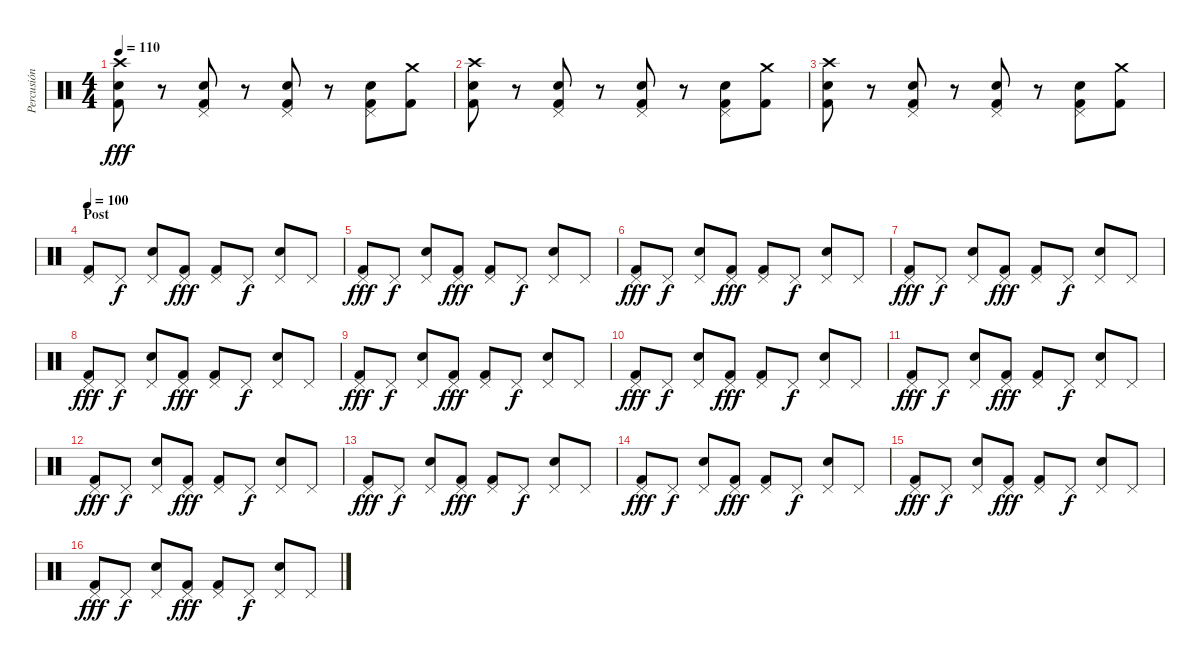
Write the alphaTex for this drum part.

\track ("Percusión" "Percusión") {instrument percussion}
\staff {score}
\articulation defaults
\ts (4 4)
\tempo 110
\clef neutral
\ks c
("Kick (hit) 2" "Snare (hit) 2" "Crash high (hit)").8{dy fff} r.8 ("Kick (hit) 2" "Snare (hit) 2" "Pedal Hi-Hat (hit)").8 r.8 ("Kick (hit) 2" "Snare (hit) 2" "Pedal Hi-Hat (hit)").8 r.8 ("Kick (hit) 2" "Snare (hit) 2" "Pedal Hi-Hat (hit)").8 ("Crash medium (hit)" "Kick (hit) 2").8 |
("Kick (hit) 2" "Snare (hit) 2" "Crash high (hit)").8 r.8 ("Kick (hit) 2" "Snare (hit) 2" "Pedal Hi-Hat (hit)").8 r.8 ("Kick (hit) 2" "Snare (hit) 2" "Pedal Hi-Hat (hit)").8 r.8 ("Kick (hit) 2" "Snare (hit) 2" "Pedal Hi-Hat (hit)").8 ("Crash medium (hit)" "Kick (hit) 2").8 |
("Kick (hit) 2" "Snare (hit) 2" "Crash high (hit)").8 r.8 ("Kick (hit) 2" "Snare (hit) 2" "Pedal Hi-Hat (hit)").8 r.8 ("Kick (hit) 2" "Snare (hit) 2" "Pedal Hi-Hat (hit)").8 r.8 ("Kick (hit) 2" "Snare (hit) 2" "Pedal Hi-Hat (hit)").8 ("Crash medium (hit)" "Kick (hit) 2").8 |
\section ("" "Post")
\tempo 100
("Pedal Hi-Hat (hit)" "Kick (hit) 2").8{volume 8} "Pedal Hi-Hat (hit)".8{dy f} ("Pedal Hi-Hat (hit)" "Snare (hit) 2").8 ("Pedal Hi-Hat (hit)" "Kick (hit) 2").8{dy fff} ("Pedal Hi-Hat (hit)" "Kick (hit) 2").8 "Pedal Hi-Hat (hit)".8{dy f} ("Pedal Hi-Hat (hit)" "Snare (hit) 2").8 "Pedal Hi-Hat (hit)".8 |
("Pedal Hi-Hat (hit)" "Kick (hit) 2").8{dy fff} "Pedal Hi-Hat (hit)".8{dy f} ("Pedal Hi-Hat (hit)" "Snare (hit) 2").8 ("Pedal Hi-Hat (hit)" "Kick (hit) 2").8{dy fff} ("Pedal Hi-Hat (hit)" "Kick (hit) 2").8 "Pedal Hi-Hat (hit)".8{dy f} ("Pedal Hi-Hat (hit)" "Snare (hit) 2").8 "Pedal Hi-Hat (hit)".8 |
("Pedal Hi-Hat (hit)" "Kick (hit) 2").8{dy fff} "Pedal Hi-Hat (hit)".8{dy f} ("Pedal Hi-Hat (hit)" "Snare (hit) 2").8 ("Pedal Hi-Hat (hit)" "Kick (hit) 2").8{dy fff} ("Pedal Hi-Hat (hit)" "Kick (hit) 2").8 "Pedal Hi-Hat (hit)".8{dy f} ("Pedal Hi-Hat (hit)" "Snare (hit) 2").8 "Pedal Hi-Hat (hit)".8 |
("Pedal Hi-Hat (hit)" "Kick (hit) 2").8{dy fff} "Pedal Hi-Hat (hit)".8{dy f} ("Pedal Hi-Hat (hit)" "Snare (hit) 2").8 ("Pedal Hi-Hat (hit)" "Kick (hit) 2").8{dy fff} ("Pedal Hi-Hat (hit)" "Kick (hit) 2").8 "Pedal Hi-Hat (hit)".8{dy f} ("Pedal Hi-Hat (hit)" "Snare (hit) 2").8 "Pedal Hi-Hat (hit)".8 |
("Pedal Hi-Hat (hit)" "Kick (hit) 2").8{dy fff} "Pedal Hi-Hat (hit)".8{dy f} ("Pedal Hi-Hat (hit)" "Snare (hit) 2").8 ("Pedal Hi-Hat (hit)" "Kick (hit) 2").8{dy fff} ("Pedal Hi-Hat (hit)" "Kick (hit) 2").8 "Pedal Hi-Hat (hit)".8{dy f} ("Pedal Hi-Hat (hit)" "Snare (hit) 2").8 "Pedal Hi-Hat (hit)".8 |
("Pedal Hi-Hat (hit)" "Kick (hit) 2").8{dy fff} "Pedal Hi-Hat (hit)".8{dy f} ("Pedal Hi-Hat (hit)" "Snare (hit) 2").8 ("Pedal Hi-Hat (hit)" "Kick (hit) 2").8{dy fff} ("Pedal Hi-Hat (hit)" "Kick (hit) 2").8 "Pedal Hi-Hat (hit)".8{dy f} ("Pedal Hi-Hat (hit)" "Snare (hit) 2").8 "Pedal Hi-Hat (hit)".8 |
("Pedal Hi-Hat (hit)" "Kick (hit) 2").8{dy fff} "Pedal Hi-Hat (hit)".8{dy f} ("Pedal Hi-Hat (hit)" "Snare (hit) 2").8 ("Pedal Hi-Hat (hit)" "Kick (hit) 2").8{dy fff} ("Pedal Hi-Hat (hit)" "Kick (hit) 2").8 "Pedal Hi-Hat (hit)".8{dy f} ("Pedal Hi-Hat (hit)" "Snare (hit) 2").8 "Pedal Hi-Hat (hit)".8 |
("Pedal Hi-Hat (hit)" "Kick (hit) 2").8{dy fff} "Pedal Hi-Hat (hit)".8{dy f} ("Pedal Hi-Hat (hit)" "Snare (hit) 2").8 ("Pedal Hi-Hat (hit)" "Kick (hit) 2").8{dy fff} ("Pedal Hi-Hat (hit)" "Kick (hit) 2").8 "Pedal Hi-Hat (hit)".8{dy f} ("Pedal Hi-Hat (hit)" "Snare (hit) 2").8 "Pedal Hi-Hat (hit)".8 |
("Pedal Hi-Hat (hit)" "Kick (hit) 2").8{dy fff} "Pedal Hi-Hat (hit)".8{dy f} ("Pedal Hi-Hat (hit)" "Snare (hit) 2").8 ("Pedal Hi-Hat (hit)" "Kick (hit) 2").8{dy fff} ("Pedal Hi-Hat (hit)" "Kick (hit) 2").8 "Pedal Hi-Hat (hit)".8{dy f} ("Pedal Hi-Hat (hit)" "Snare (hit) 2").8 "Pedal Hi-Hat (hit)".8 |
("Pedal Hi-Hat (hit)" "Kick (hit) 2").8{dy fff} "Pedal Hi-Hat (hit)".8{dy f} ("Pedal Hi-Hat (hit)" "Snare (hit) 2").8 ("Pedal Hi-Hat (hit)" "Kick (hit) 2").8{dy fff} ("Pedal Hi-Hat (hit)" "Kick (hit) 2").8 "Pedal Hi-Hat (hit)".8{dy f} ("Pedal Hi-Hat (hit)" "Snare (hit) 2").8 "Pedal Hi-Hat (hit)".8 |
("Pedal Hi-Hat (hit)" "Kick (hit) 2").8{dy fff} "Pedal Hi-Hat (hit)".8{dy f} ("Pedal Hi-Hat (hit)" "Snare (hit) 2").8 ("Pedal Hi-Hat (hit)" "Kick (hit) 2").8{dy fff} ("Pedal Hi-Hat (hit)" "Kick (hit) 2").8 "Pedal Hi-Hat (hit)".8{dy f} ("Pedal Hi-Hat (hit)" "Snare (hit) 2").8 "Pedal Hi-Hat (hit)".8 |
("Pedal Hi-Hat (hit)" "Kick (hit) 2").8{dy fff} "Pedal Hi-Hat (hit)".8{dy f} ("Pedal Hi-Hat (hit)" "Snare (hit) 2").8 ("Pedal Hi-Hat (hit)" "Kick (hit) 2").8{dy fff} ("Pedal Hi-Hat (hit)" "Kick (hit) 2").8 "Pedal Hi-Hat (hit)".8{dy f} ("Pedal Hi-Hat (hit)" "Snare (hit) 2").8 "Pedal Hi-Hat (hit)".8 |
("Pedal Hi-Hat (hit)" "Kick (hit) 2").8{dy fff} "Pedal Hi-Hat (hit)".8{dy f} ("Pedal Hi-Hat (hit)" "Snare (hit) 2").8 ("Pedal Hi-Hat (hit)" "Kick (hit) 2").8{dy fff} ("Pedal Hi-Hat (hit)" "Kick (hit) 2").8 "Pedal Hi-Hat (hit)".8{dy f} ("Pedal Hi-Hat (hit)" "Snare (hit) 2").8 "Pedal Hi-Hat (hit)".8
